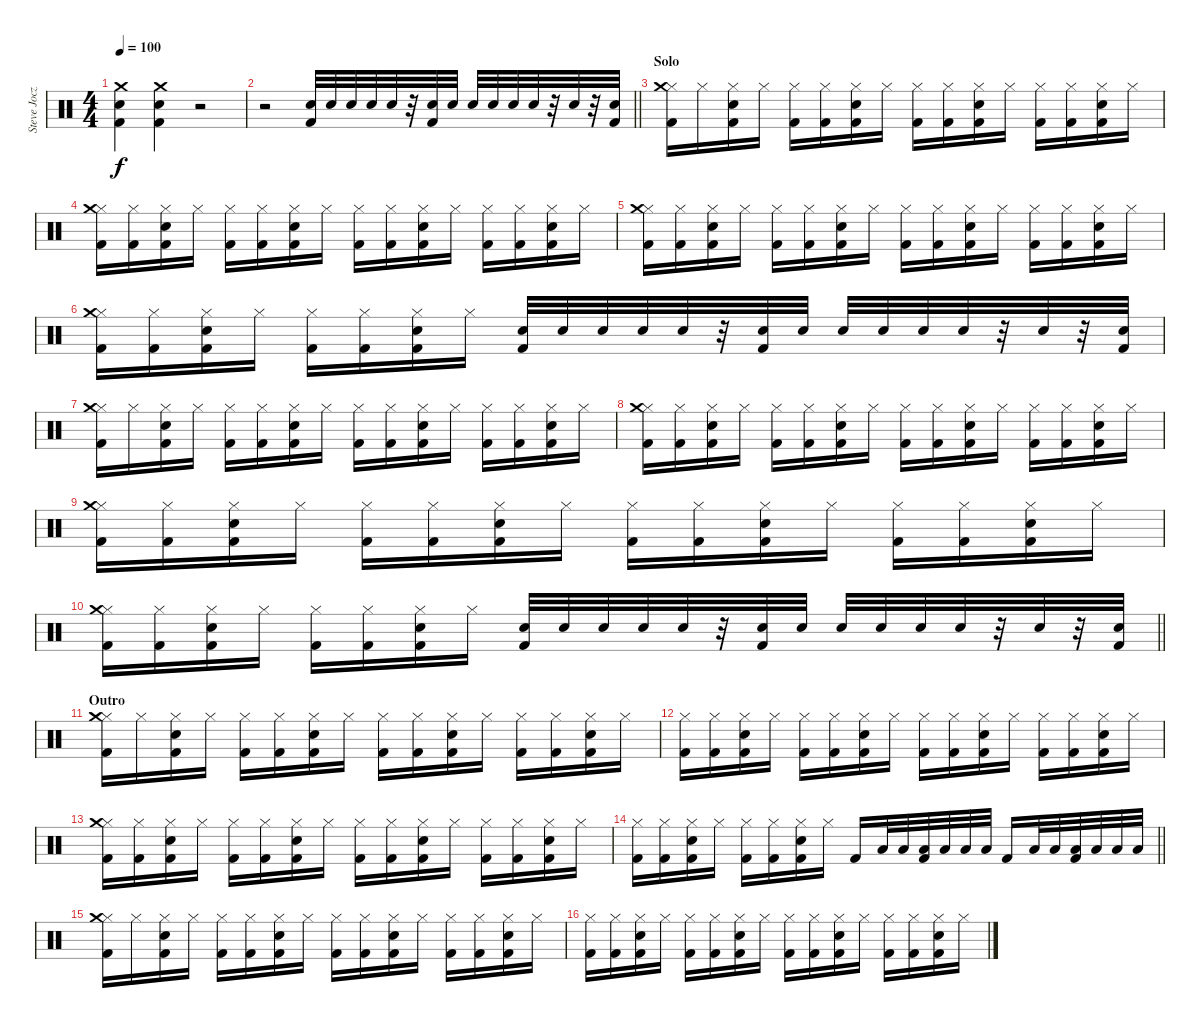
\track ("Steve Jocz <Drums>" "Steve Jocz") {instrument percussion}
\staff {score}
\articulation defaults
\ts (4 4)
\tempo 100
\clef neutral
\ks c
("Crash medium (hit)" "Snare (hit) 2" "Kick (hit) 2").4{dy f} ("Crash medium (hit)" "Snare (hit) 2" "Kick (hit) 2").4 r.2 |
\barLineRight lightlight
r.2 ("Snare (hit) 2" "Kick (hit) 2").32 "Snare (hit) 2".32 "Snare (hit) 2".32 "Snare (hit) 2".32 "Snare (hit) 2".32 r.32 ("Snare (hit) 2" "Kick (hit) 2").32 "Snare (hit) 2".32 "Snare (hit) 2".32 "Snare (hit) 2".32 "Snare (hit) 2".32 "Snare (hit) 2".32 r.32 "Snare (hit) 2".32 r.32 ("Snare (hit) 2" "Kick (hit) 2").32 |
\section ("" "Solo")
("Hi-Hat (closed)" "Crash medium (hit)" "Kick (hit) 2").16 "Hi-Hat (closed)".16 ("Hi-Hat (closed)" "Snare (hit) 2" "Kick (hit) 2").16 "Hi-Hat (closed)".16 ("Hi-Hat (closed)" "Kick (hit) 2").16 ("Hi-Hat (closed)" "Kick (hit) 2").16 ("Hi-Hat (closed)" "Snare (hit) 2" "Kick (hit) 2").16 "Hi-Hat (closed)".16 ("Hi-Hat (closed)" "Kick (hit) 2").16 ("Hi-Hat (closed)" "Kick (hit) 2").16 ("Hi-Hat (closed)" "Snare (hit) 2" "Kick (hit) 2").16 "Hi-Hat (closed)".16 ("Hi-Hat (closed)" "Kick (hit) 2").16 ("Hi-Hat (closed)" "Kick (hit) 2").16 ("Hi-Hat (closed)" "Snare (hit) 2" "Kick (hit) 2").16 "Hi-Hat (closed)".16 |
("Hi-Hat (closed)" "Crash medium (hit)" "Kick (hit) 2").16 ("Hi-Hat (closed)" "Kick (hit) 2").16 ("Hi-Hat (closed)" "Snare (hit) 2" "Kick (hit) 2").16 "Hi-Hat (closed)".16 ("Hi-Hat (closed)" "Kick (hit) 2").16 ("Hi-Hat (closed)" "Kick (hit) 2").16 ("Hi-Hat (closed)" "Snare (hit) 2" "Kick (hit) 2").16 "Hi-Hat (closed)".16 ("Hi-Hat (closed)" "Kick (hit) 2").16 ("Hi-Hat (closed)" "Kick (hit) 2").16 ("Hi-Hat (closed)" "Snare (hit) 2" "Kick (hit) 2").16 "Hi-Hat (closed)".16 ("Hi-Hat (closed)" "Kick (hit) 2").16 ("Hi-Hat (closed)" "Kick (hit) 2").16 ("Hi-Hat (closed)" "Snare (hit) 2" "Kick (hit) 2").16 "Hi-Hat (closed)".16 |
("Hi-Hat (closed)" "Crash medium (hit)" "Kick (hit) 2").16 ("Hi-Hat (closed)" "Kick (hit) 2").16 ("Hi-Hat (closed)" "Snare (hit) 2" "Kick (hit) 2").16 "Hi-Hat (closed)".16 ("Hi-Hat (closed)" "Kick (hit) 2").16 ("Hi-Hat (closed)" "Kick (hit) 2").16 ("Hi-Hat (closed)" "Snare (hit) 2" "Kick (hit) 2").16 "Hi-Hat (closed)".16 ("Hi-Hat (closed)" "Kick (hit) 2").16 ("Hi-Hat (closed)" "Kick (hit) 2").16 ("Hi-Hat (closed)" "Snare (hit) 2" "Kick (hit) 2").16 "Hi-Hat (closed)".16 ("Hi-Hat (closed)" "Kick (hit) 2").16 ("Hi-Hat (closed)" "Kick (hit) 2").16 ("Hi-Hat (closed)" "Snare (hit) 2" "Kick (hit) 2").16 "Hi-Hat (closed)".16 |
("Hi-Hat (closed)" "Crash medium (hit)" "Kick (hit) 2").16 ("Hi-Hat (closed)" "Kick (hit) 2").16 ("Hi-Hat (closed)" "Snare (hit) 2" "Kick (hit) 2").16 "Hi-Hat (closed)".16 ("Hi-Hat (closed)" "Kick (hit) 2").16 ("Hi-Hat (closed)" "Kick (hit) 2").16 ("Hi-Hat (closed)" "Snare (hit) 2" "Kick (hit) 2").16 "Hi-Hat (closed)".16 ("Snare (hit) 2" "Kick (hit) 2").32 "Snare (hit) 2".32 "Snare (hit) 2".32 "Snare (hit) 2".32 "Snare (hit) 2".32 r.32 ("Snare (hit) 2" "Kick (hit) 2").32 "Snare (hit) 2".32 "Snare (hit) 2".32 "Snare (hit) 2".32 "Snare (hit) 2".32 "Snare (hit) 2".32 r.32 "Snare (hit) 2".32 r.32 ("Snare (hit) 2" "Kick (hit) 2").32 |
("Hi-Hat (closed)" "Crash medium (hit)" "Kick (hit) 2").16 "Hi-Hat (closed)".16 ("Hi-Hat (closed)" "Snare (hit) 2" "Kick (hit) 2").16 "Hi-Hat (closed)".16 ("Hi-Hat (closed)" "Kick (hit) 2").16 ("Hi-Hat (closed)" "Kick (hit) 2").16 ("Hi-Hat (closed)" "Snare (hit) 2" "Kick (hit) 2").16 "Hi-Hat (closed)".16 ("Hi-Hat (closed)" "Kick (hit) 2").16 ("Hi-Hat (closed)" "Kick (hit) 2").16 ("Hi-Hat (closed)" "Snare (hit) 2" "Kick (hit) 2").16 "Hi-Hat (closed)".16 ("Hi-Hat (closed)" "Kick (hit) 2").16 ("Hi-Hat (closed)" "Kick (hit) 2").16 ("Hi-Hat (closed)" "Snare (hit) 2" "Kick (hit) 2").16 "Hi-Hat (closed)".16 |
("Hi-Hat (closed)" "Crash medium (hit)" "Kick (hit) 2").16 ("Hi-Hat (closed)" "Kick (hit) 2").16 ("Hi-Hat (closed)" "Snare (hit) 2" "Kick (hit) 2").16 "Hi-Hat (closed)".16 ("Hi-Hat (closed)" "Kick (hit) 2").16 ("Hi-Hat (closed)" "Kick (hit) 2").16 ("Hi-Hat (closed)" "Snare (hit) 2" "Kick (hit) 2").16 "Hi-Hat (closed)".16 ("Hi-Hat (closed)" "Kick (hit) 2").16 ("Hi-Hat (closed)" "Kick (hit) 2").16 ("Hi-Hat (closed)" "Snare (hit) 2" "Kick (hit) 2").16 "Hi-Hat (closed)".16 ("Hi-Hat (closed)" "Kick (hit) 2").16 ("Hi-Hat (closed)" "Kick (hit) 2").16 ("Hi-Hat (closed)" "Snare (hit) 2" "Kick (hit) 2").16 "Hi-Hat (closed)".16 |
("Hi-Hat (closed)" "Crash medium (hit)" "Kick (hit) 2").16 ("Hi-Hat (closed)" "Kick (hit) 2").16 ("Hi-Hat (closed)" "Snare (hit) 2" "Kick (hit) 2").16 "Hi-Hat (closed)".16 ("Hi-Hat (closed)" "Kick (hit) 2").16 ("Hi-Hat (closed)" "Kick (hit) 2").16 ("Hi-Hat (closed)" "Snare (hit) 2" "Kick (hit) 2").16 "Hi-Hat (closed)".16 ("Hi-Hat (closed)" "Kick (hit) 2").16 ("Hi-Hat (closed)" "Kick (hit) 2").16 ("Hi-Hat (closed)" "Snare (hit) 2" "Kick (hit) 2").16 "Hi-Hat (closed)".16 ("Hi-Hat (closed)" "Kick (hit) 2").16 ("Hi-Hat (closed)" "Kick (hit) 2").16 ("Hi-Hat (closed)" "Snare (hit) 2" "Kick (hit) 2").16 "Hi-Hat (closed)".16 |
\barLineRight lightlight
("Hi-Hat (closed)" "Crash medium (hit)" "Kick (hit) 2").16 ("Hi-Hat (closed)" "Kick (hit) 2").16 ("Hi-Hat (closed)" "Snare (hit) 2" "Kick (hit) 2").16 "Hi-Hat (closed)".16 ("Hi-Hat (closed)" "Kick (hit) 2").16 ("Hi-Hat (closed)" "Kick (hit) 2").16 ("Hi-Hat (closed)" "Snare (hit) 2" "Kick (hit) 2").16 "Hi-Hat (closed)".16 ("Snare (hit) 2" "Kick (hit) 2").32 "Snare (hit) 2".32 "Snare (hit) 2".32 "Snare (hit) 2".32 "Snare (hit) 2".32 r.32 ("Snare (hit) 2" "Kick (hit) 2").32 "Snare (hit) 2".32 "Snare (hit) 2".32 "Snare (hit) 2".32 "Snare (hit) 2".32 "Snare (hit) 2".32 r.32 "Snare (hit) 2".32 r.32 ("Snare (hit) 2" "Kick (hit) 2").32 |
\section ("" "Outro")
("Hi-Hat (closed)" "Crash medium (hit)" "Kick (hit) 2").16 "Hi-Hat (closed)".16 ("Hi-Hat (closed)" "Snare (hit) 2" "Kick (hit) 2").16 "Hi-Hat (closed)".16 ("Hi-Hat (closed)" "Kick (hit) 2").16 ("Hi-Hat (closed)" "Kick (hit) 2").16 ("Hi-Hat (closed)" "Snare (hit) 2" "Kick (hit) 2").16 "Hi-Hat (closed)".16 ("Hi-Hat (closed)" "Kick (hit) 2").16 ("Hi-Hat (closed)" "Kick (hit) 2").16 ("Hi-Hat (closed)" "Snare (hit) 2" "Kick (hit) 2").16 "Hi-Hat (closed)".16 ("Hi-Hat (closed)" "Kick (hit) 2").16 ("Hi-Hat (closed)" "Kick (hit) 2").16 ("Hi-Hat (closed)" "Snare (hit) 2" "Kick (hit) 2").16 "Hi-Hat (closed)".16 |
("Hi-Hat (closed)" "Kick (hit) 2").16 ("Hi-Hat (closed)" "Kick (hit) 2").16 ("Hi-Hat (closed)" "Snare (hit) 2" "Kick (hit) 2").16 "Hi-Hat (closed)".16 ("Hi-Hat (closed)" "Kick (hit) 2").16 ("Hi-Hat (closed)" "Kick (hit) 2").16 ("Hi-Hat (closed)" "Snare (hit) 2" "Kick (hit) 2").16 "Hi-Hat (closed)".16 ("Hi-Hat (closed)" "Kick (hit) 2").16 ("Hi-Hat (closed)" "Kick (hit) 2").16 ("Hi-Hat (closed)" "Snare (hit) 2" "Kick (hit) 2").16 "Hi-Hat (closed)".16 ("Hi-Hat (closed)" "Kick (hit) 2").16 ("Hi-Hat (closed)" "Kick (hit) 2").16 ("Hi-Hat (closed)" "Snare (hit) 2" "Kick (hit) 2").16 "Hi-Hat (closed)".16 |
("Hi-Hat (closed)" "Crash medium (hit)" "Kick (hit) 2").16 ("Hi-Hat (closed)" "Kick (hit) 2").16 ("Hi-Hat (closed)" "Snare (hit) 2" "Kick (hit) 2").16 "Hi-Hat (closed)".16 ("Hi-Hat (closed)" "Kick (hit) 2").16 ("Hi-Hat (closed)" "Kick (hit) 2").16 ("Hi-Hat (closed)" "Snare (hit) 2" "Kick (hit) 2").16 "Hi-Hat (closed)".16 ("Hi-Hat (closed)" "Kick (hit) 2").16 ("Hi-Hat (closed)" "Kick (hit) 2").16 ("Hi-Hat (closed)" "Snare (hit) 2" "Kick (hit) 2").16 "Hi-Hat (closed)".16 ("Hi-Hat (closed)" "Kick (hit) 2").16 ("Hi-Hat (closed)" "Kick (hit) 2").16 ("Hi-Hat (closed)" "Snare (hit) 2" "Kick (hit) 2").16 "Hi-Hat (closed)".16 |
\barLineRight lightlight
("Hi-Hat (closed)" "Kick (hit) 2").16 ("Hi-Hat (closed)" "Kick (hit) 2").16 ("Hi-Hat (closed)" "Snare (hit) 2" "Kick (hit) 2").16 "Hi-Hat (closed)".16 ("Hi-Hat (closed)" "Kick (hit) 2").16 ("Hi-Hat (closed)" "Kick (hit) 2").16 ("Hi-Hat (closed)" "Snare (hit) 2" "Kick (hit) 2").16 "Hi-Hat (closed)".16 "Kick (hit) 2".16 "Low Tom (hit)".32 "Low Tom (hit)".32 ("Low Tom (hit)" "Kick (hit) 2").32 "Low Tom (hit)".32 "Low Tom (hit)".32 "Low Tom (hit)".32 "Kick (hit) 2".16 "Low Tom (hit)".32 "Low Tom (hit)".32 ("Low Tom (hit)" "Kick (hit) 2").32 "Low Tom (hit)".32 "Low Tom (hit)".32 "Low Tom (hit)".32 |
("Hi-Hat (closed)" "Crash medium (hit)" "Kick (hit) 2").16 "Hi-Hat (closed)".16 ("Hi-Hat (closed)" "Snare (hit) 2" "Kick (hit) 2").16 "Hi-Hat (closed)".16 ("Hi-Hat (closed)" "Kick (hit) 2").16 ("Hi-Hat (closed)" "Kick (hit) 2").16 ("Hi-Hat (closed)" "Snare (hit) 2" "Kick (hit) 2").16 "Hi-Hat (closed)".16 ("Hi-Hat (closed)" "Kick (hit) 2").16 ("Hi-Hat (closed)" "Kick (hit) 2").16 ("Hi-Hat (closed)" "Snare (hit) 2" "Kick (hit) 2").16 "Hi-Hat (closed)".16 ("Hi-Hat (closed)" "Kick (hit) 2").16 ("Hi-Hat (closed)" "Kick (hit) 2").16 ("Hi-Hat (closed)" "Snare (hit) 2" "Kick (hit) 2").16 "Hi-Hat (closed)".16 |
("Hi-Hat (closed)" "Kick (hit) 2").16 ("Hi-Hat (closed)" "Kick (hit) 2").16 ("Hi-Hat (closed)" "Snare (hit) 2" "Kick (hit) 2").16 "Hi-Hat (closed)".16 ("Hi-Hat (closed)" "Kick (hit) 2").16 ("Hi-Hat (closed)" "Kick (hit) 2").16 ("Hi-Hat (closed)" "Snare (hit) 2" "Kick (hit) 2").16 "Hi-Hat (closed)".16 ("Hi-Hat (closed)" "Kick (hit) 2").16 ("Hi-Hat (closed)" "Kick (hit) 2").16 ("Hi-Hat (closed)" "Snare (hit) 2" "Kick (hit) 2").16 "Hi-Hat (closed)".16 ("Hi-Hat (closed)" "Kick (hit) 2").16 ("Hi-Hat (closed)" "Kick (hit) 2").16 ("Hi-Hat (closed)" "Snare (hit) 2" "Kick (hit) 2").16 "Hi-Hat (closed)".16
